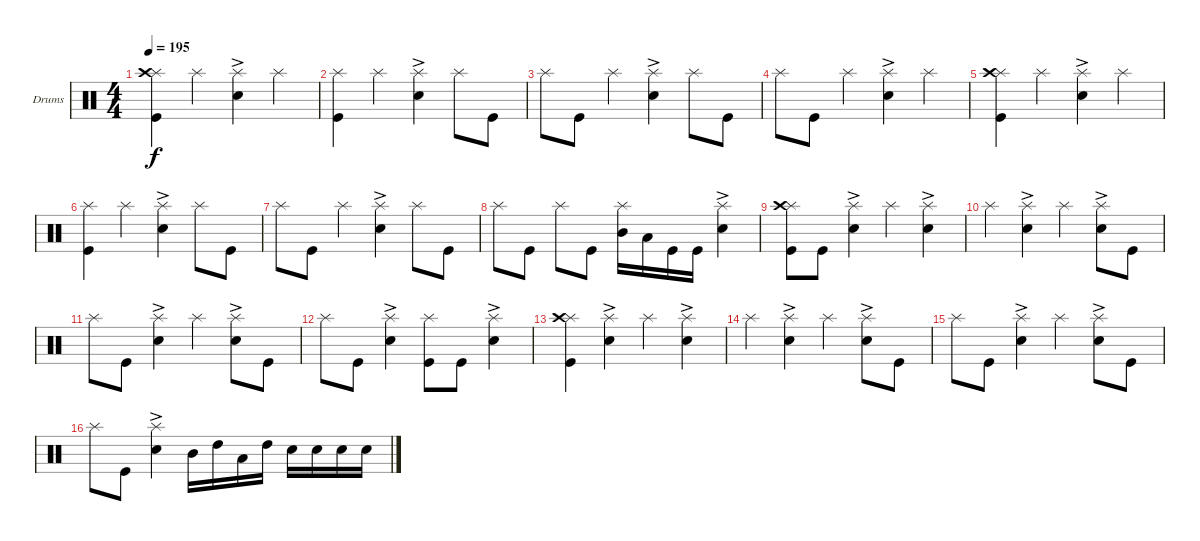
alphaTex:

\defaultSystemsLayout 4
\bracketExtendMode groupsimilarinstruments
\firstSystemTrackNameOrientation horizontal
\otherSystemsTrackNameOrientation horizontal
\track ("Drumkit" "Drums") {instrument percussion}
\staff {score}
\articulation defaults
\ts (4 4)
\tempo 195
\clef neutral
\ks c
("Kick (hit)" "Splash (hit)" "Crash high (hit)").4{dy f} "Splash (hit)".4 ("Snare (hit) 2"{ac} "Splash (hit)").4 "Splash (hit)".4 |
("Kick (hit)" "Splash (hit)").4 "Splash (hit)".4 ("Snare (hit) 2"{ac} "Splash (hit)").4 "Splash (hit)".8 "Kick (hit)".8 |
"Splash (hit)".8 "Kick (hit)".8 "Splash (hit)".4 ("Splash (hit)" "Snare (hit) 2"{ac}).4 "Splash (hit)".8 "Kick (hit)".8 |
"Splash (hit)".8 "Kick (hit)".8 "Splash (hit)".4 ("Splash (hit)" "Snare (hit) 2"{ac}).4 "Splash (hit)".4 |
("Kick (hit)" "Splash (hit)" "Crash high (hit)").4 "Splash (hit)".4 ("Snare (hit) 2"{ac} "Splash (hit)").4 "Splash (hit)".4 |
("Kick (hit)" "Splash (hit)").4 "Splash (hit)".4 ("Snare (hit) 2"{ac} "Splash (hit)").4 "Splash (hit)".8 "Kick (hit)".8 |
"Splash (hit)".8 "Kick (hit)".8 "Splash (hit)".4 ("Splash (hit)" "Snare (hit) 2"{ac}).4 "Splash (hit)".8 "Kick (hit)".8 |
"Splash (hit)".8 "Kick (hit)".8 "Splash (hit)".8 "Kick (hit)".8 ("Mid Tom (hit)" "Splash (hit)").16 "Low Tom (hit)".16 "Kick (hit)".16 "Kick (hit)".16 ("Snare (hit) 2"{ac} "Splash (hit)").4 |
("Kick (hit)" "Splash (hit)" "Crash high (hit)").8 "Kick (hit)".8 ("Snare (hit) 2"{ac} "Splash (hit)").4 "Splash (hit)".4 ("Splash (hit)" "Snare (hit) 2"{ac}).4 |
"Splash (hit)".4 ("Splash (hit)" "Snare (hit) 2"{ac}).4 "Splash (hit)".4 ("Splash (hit)" "Snare (hit) 2"{ac}).8 "Kick (hit)".8 |
"Splash (hit)".8 "Kick (hit)".8 ("Splash (hit)" "Snare (hit) 2"{ac}).4 "Splash (hit)".4 ("Splash (hit)" "Snare (hit) 2"{ac}).8 "Kick (hit)".8 |
"Splash (hit)".8 "Kick (hit)".8 ("Snare (hit) 2"{ac} "Splash (hit)").4 ("Splash (hit)" "Kick (hit)").8 "Kick (hit)".8 ("Splash (hit)" "Snare (hit) 2"{ac}).4 |
("Kick (hit)" "Splash (hit)" "Crash high (hit)").4 ("Snare (hit) 2"{ac} "Splash (hit)").4 "Splash (hit)".4 ("Splash (hit)" "Snare (hit) 2"{ac}).4 |
"Splash (hit)".4 ("Splash (hit)" "Snare (hit) 2"{ac}).4 "Splash (hit)".4 ("Splash (hit)" "Snare (hit) 2"{ac}).8 "Kick (hit)".8 |
"Splash (hit)".8 "Kick (hit)".8 ("Splash (hit)" "Snare (hit) 2"{ac}).4 "Splash (hit)".4 ("Splash (hit)" "Snare (hit) 2"{ac}).8 "Kick (hit)".8 |
"Splash (hit)".8 "Kick (hit)".8 ("Snare (hit) 2"{ac} "Splash (hit)").4 "Mid Tom (hit)".16 "High Tom (hit)".16 "Low Tom (hit)".16 "High Tom (hit)".16 "Snare (hit) 2".16 "Snare (hit) 2".16 "Snare (hit) 2".16 "Snare (hit) 2".16
